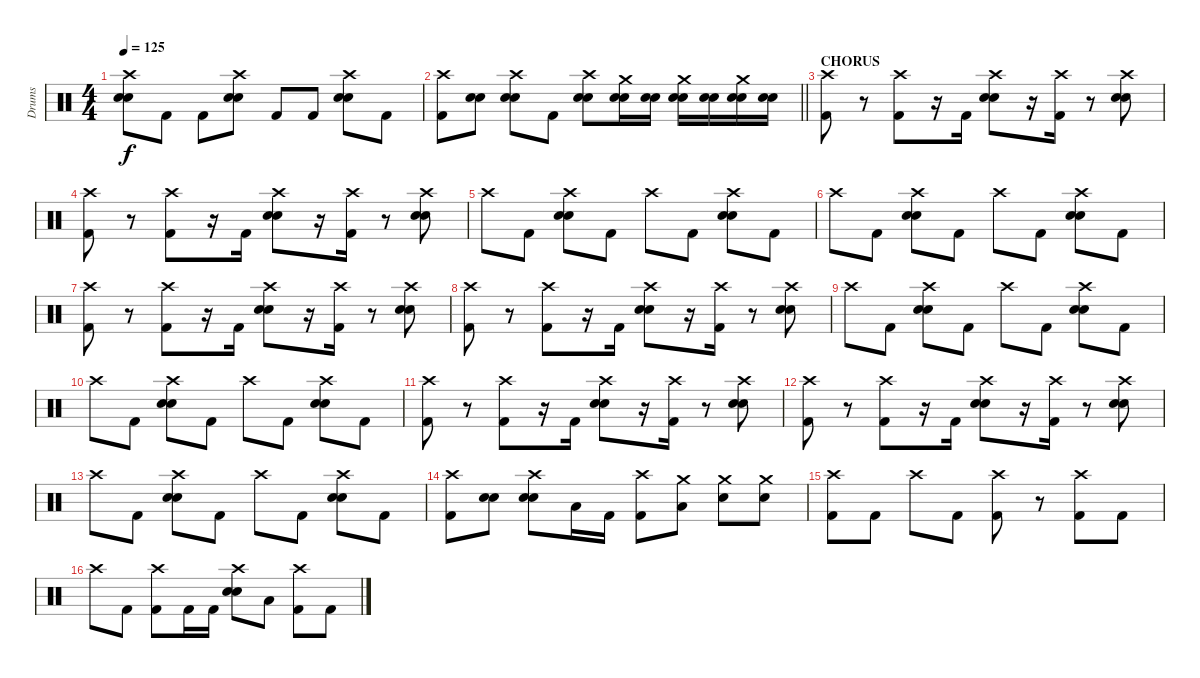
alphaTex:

\track ("Drums" "Drums") {instrument percussion}
\staff {score}
\articulation defaults
\ts (4 4)
\tempo 125
\clef neutral
\ks c
("Crash high (hit)" "Snare (hit) 2" "Electric Snare (hit)").8{dy f} "Kick (hit) 2".8 "Kick (hit) 2".8 ("Crash high (hit)" "Snare (hit) 2" "Electric Snare (hit)").8 "Kick (hit) 2".8 "Kick (hit) 2".8 ("Crash high (hit)" "Snare (hit) 2" "Electric Snare (hit)").8 "Kick (hit) 2".8 |
\barLineRight lightlight
("Crash high (hit)" "Kick (hit) 2").8 ("Snare (hit) 2" "Electric Snare (hit)").8 ("Crash high (hit)" "Snare (hit) 2" "Electric Snare (hit)").8 "Kick (hit) 2".8 ("Crash high (hit)" "Snare (hit) 2" "Electric Snare (hit)").8 ("Crash medium (hit)" "Snare (hit) 2" "Electric Snare (hit)").16 ("Snare (hit) 2" "Electric Snare (hit)").16 ("Crash medium (hit)" "Snare (hit) 2" "Electric Snare (hit)").16 ("Snare (hit) 2" "Electric Snare (hit)").16 ("Crash medium (hit)" "Snare (hit) 2" "Electric Snare (hit)").16 ("Snare (hit) 2" "Electric Snare (hit)").16 |
\section ("" "CHORUS")
("Crash high (hit)" "Kick (hit) 2").8 r.8 ("Crash high (hit)" "Kick (hit) 2").8 r.16 "Kick (hit) 2".16 ("Crash high (hit)" "Snare (hit) 2" "Electric Snare (hit)").8 r.16 ("Crash high (hit)" "Kick (hit) 2").16 r.8 ("Crash high (hit)" "Snare (hit) 2" "Electric Snare (hit)").8 |
("Crash high (hit)" "Kick (hit) 2").8 r.8 ("Crash high (hit)" "Kick (hit) 2").8 r.16 "Kick (hit) 2".16 ("Crash high (hit)" "Snare (hit) 2" "Electric Snare (hit)").8 r.16 ("Crash high (hit)" "Kick (hit) 2").16 r.8 ("Crash high (hit)" "Snare (hit) 2" "Electric Snare (hit)").8 |
"Crash high (hit)".8 "Kick (hit) 2".8 ("Crash high (hit)" "Snare (hit) 2" "Electric Snare (hit)").8 "Kick (hit) 2".8 "Crash high (hit)".8 "Kick (hit) 2".8 ("Crash high (hit)" "Snare (hit) 2" "Electric Snare (hit)").8 "Kick (hit) 2".8 |
"Crash high (hit)".8 "Kick (hit) 2".8 ("Crash high (hit)" "Snare (hit) 2" "Electric Snare (hit)").8 "Kick (hit) 2".8 "Crash high (hit)".8 "Kick (hit) 2".8 ("Crash high (hit)" "Snare (hit) 2" "Electric Snare (hit)").8 "Kick (hit) 2".8 |
("Crash high (hit)" "Kick (hit) 2").8 r.8 ("Crash high (hit)" "Kick (hit) 2").8 r.16 "Kick (hit) 2".16 ("Crash high (hit)" "Snare (hit) 2" "Electric Snare (hit)").8 r.16 ("Crash high (hit)" "Kick (hit) 2").16 r.8 ("Crash high (hit)" "Snare (hit) 2" "Electric Snare (hit)").8 |
("Crash high (hit)" "Kick (hit) 2").8 r.8 ("Crash high (hit)" "Kick (hit) 2").8 r.16 "Kick (hit) 2".16 ("Crash high (hit)" "Snare (hit) 2" "Electric Snare (hit)").8 r.16 ("Crash high (hit)" "Kick (hit) 2").16 r.8 ("Crash high (hit)" "Snare (hit) 2" "Electric Snare (hit)").8 |
"Crash high (hit)".8 "Kick (hit) 2".8 ("Crash high (hit)" "Snare (hit) 2" "Electric Snare (hit)").8 "Kick (hit) 2".8 "Crash high (hit)".8 "Kick (hit) 2".8 ("Crash high (hit)" "Snare (hit) 2" "Electric Snare (hit)").8 "Kick (hit) 2".8 |
"Crash high (hit)".8 "Kick (hit) 2".8 ("Crash high (hit)" "Snare (hit) 2" "Electric Snare (hit)").8 "Kick (hit) 2".8 "Crash high (hit)".8 "Kick (hit) 2".8 ("Crash high (hit)" "Snare (hit) 2" "Electric Snare (hit)").8 "Kick (hit) 2".8 |
("Crash high (hit)" "Kick (hit) 2").8 r.8 ("Crash high (hit)" "Kick (hit) 2").8 r.16 "Kick (hit) 2".16 ("Crash high (hit)" "Snare (hit) 2" "Electric Snare (hit)").8 r.16 ("Crash high (hit)" "Kick (hit) 2").16 r.8 ("Crash high (hit)" "Snare (hit) 2" "Electric Snare (hit)").8 |
("Crash high (hit)" "Kick (hit) 2").8 r.8 ("Crash high (hit)" "Kick (hit) 2").8 r.16 "Kick (hit) 2".16 ("Crash high (hit)" "Snare (hit) 2" "Electric Snare (hit)").8 r.16 ("Crash high (hit)" "Kick (hit) 2").16 r.8 ("Crash high (hit)" "Snare (hit) 2" "Electric Snare (hit)").8 |
"Crash high (hit)".8 "Kick (hit) 2".8 ("Crash high (hit)" "Snare (hit) 2" "Electric Snare (hit)").8 "Kick (hit) 2".8 "Crash high (hit)".8 "Kick (hit) 2".8 ("Crash high (hit)" "Snare (hit) 2" "Electric Snare (hit)").8 "Kick (hit) 2".8 |
("Crash high (hit)" "Kick (hit) 2").8 ("Snare (hit) 2" "Electric Snare (hit)").8 ("Crash high (hit)" "Snare (hit) 2" "Electric Snare (hit)").8 "Low Floor Tom (hit)".16 "Kick (hit) 2".16 ("Crash high (hit)" "Kick (hit) 2").8 ("Crash medium (hit)" "Low Floor Tom (hit)").8 ("Crash medium (hit)" "Snare (hit) 2").8 ("Crash medium (hit)" "Snare (hit) 2").8 |
("Crash high (hit)" "Kick (hit) 2").8 "Kick (hit) 2".8 "Crash high (hit)".8 "Kick (hit) 2".8 ("Crash high (hit)" "Kick (hit) 2").8 r.8 ("Crash high (hit)" "Kick (hit) 2").8 "Kick (hit) 2".8 |
"Crash high (hit)".8 "Kick (hit) 2".8 ("Crash high (hit)" "Kick (hit) 2").8 "Kick (hit) 2".16 "Kick (hit) 2".16 ("Crash high (hit)" "Snare (hit) 2" "Electric Snare (hit)").8 "Low Floor Tom (hit)".8 ("Crash high (hit)" "Kick (hit) 2").8 "Kick (hit) 2".8
